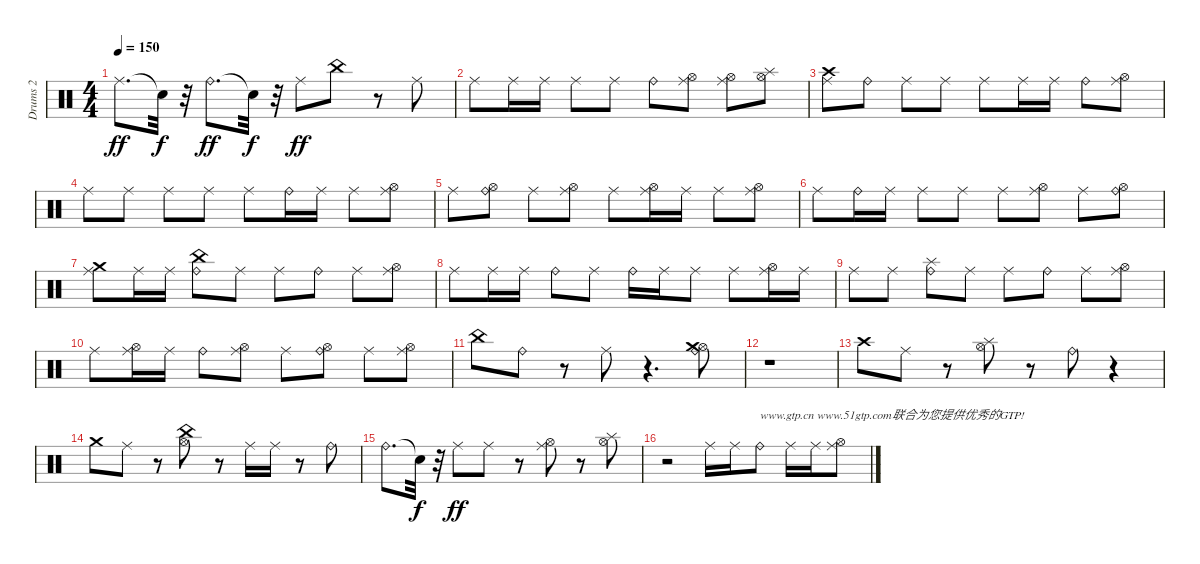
\track ("Drums 2" "Drums 2") {instrument percussion}
\staff {score}
\articulation defaults
\ts (4 4)
\tempo 150
\clef neutral
\ks c "Ride (middle)".8{d dy ff} "Snare (hit)"{t}.32{dy f}
r.32 "Ride (bell)".8{d dy ff} "Snare (hit)"{t}.32{dy f} r.32 "Ride (middle)".8{dy ff} "China (hit)".8 r.8 "Ride (middle)".8 |
"Ride (middle)".8 "Ride (middle)".16 "Ride (middle)".16 "Ride (middle)".8 "Ride (middle)".8 "Ride (bell)".8 ("Hi-Hat (open)" "Ride (middle)").8 ("Hi-Hat (open)" "Ride (middle)").8 ("Hi-Hat (open)" "Splash (hit)").8 |
("Crash high (hit)" "Ride (middle)").8 "Ride (bell)".8 "Ride (middle)".8 "Ride (middle)".8 "Ride (middle)".8 "Ride (middle)".16 "Ride (middle)".16 "Ride (bell)".8 ("Hi-Hat (open)" "Ride (middle)").8 |
"Ride (middle)".8 "Ride (middle)".8 "Ride (middle)".8 "Ride (middle)".8 "Ride (middle)".8 "Ride (bell)".16 "Ride (middle)".16 "Ride (middle)".8 ("Hi-Hat (open)" "Ride (middle)").8 |
"Ride (middle)".8 ("Hi-Hat (open)" "Ride (bell)").8 "Ride (middle)".8 ("Hi-Hat (open)" "Ride (middle)").8 "Ride (middle)".8 ("Hi-Hat (open)" "Ride (middle)").16 "Ride (middle)".16 "Ride (middle)".8 ("Hi-Hat (open)" "Ride (middle)").8 |
"Ride (middle)".8 "Ride (bell)".16 "Ride (middle)".16 "Ride (middle)".8 "Ride (middle)".8 "Ride (middle)".8 ("Hi-Hat (open)" "Ride (middle)").8 "Ride (middle)".8 ("Hi-Hat (open)" "Ride (bell)").8 |
("Ride (middle)" "Crash medium (hit)").8 "Ride (middle)".16 "Ride (middle)".16 ("China (hit)" "Ride (bell)").8 "Ride (middle)".8 "Ride (middle)".8 "Ride (bell)".8 "Ride (middle)".8 ("Hi-Hat (open)" "Ride (middle)").8 |
"Ride (middle)".8 "Ride (middle)".16 "Ride (middle)".16 "Ride (bell)".8 "Ride (middle)".8 "Ride (bell)".16 "Ride (middle)".16 "Ride (middle)".8 "Ride (middle)".8 ("Hi-Hat (open)" "Ride (middle)").16 "Ride (middle)".16 |
"Ride (middle)".8 "Ride (middle)".8 ("Ride (bell)" "Splash (hit)").8 "Ride (middle)".8 "Ride (middle)".8 "Ride (bell)".8 "Ride (middle)".8 ("Hi-Hat (open)" "Ride (middle)").8 |
"Ride (middle)".8 ("Hi-Hat (open)" "Ride (middle)").16 "Ride (middle)".16 "Ride (bell)".8 ("Hi-Hat (open)" "Ride (middle)").8 "Ride (middle)".8 ("Hi-Hat (open)" "Ride (bell)").8 "Ride (middle)".8 ("Hi-Hat (open)" "Ride (middle)").8 |
"China (hit)".8 "Ride (bell)".8 r.8 "Ride (middle)".8 r.4{d} ("Hi-Hat (open)" "Ride (bell)" "Crash medium (hit)").8 |
r.1 |
"Crash high (hit)".8 "Ride (middle)".8 r.8 ("Hi-Hat (open)" "Splash (hit)").8 r.8 "Ride (bell)".8 r.4 |
"Crash medium (hit)".8 "Ride (middle)".8 r.8 ("Hi-Hat (open)" "China (hit)").8 r.8 "Ride (middle)".16 "Ride (middle)".16 r.8 "Ride (bell)".8 |
"Ride (bell)".8{d} "Snare (hit)"{t}.32{dy f} r.32 "Ride (middle)".8{dy ff} "Ride (middle)".8 r.8 ("Hi-Hat (open)" "Ride (middle)").8 r.8 ("Hi-Hat (open)" "Splash (hit)").8 |
r.2 "Ride (middle)".16 "Ride (middle)".16 "Ride (bell)".8{txt "www.gtp.cn www.51gtp.com联合为您提供优秀的GTP!"} "Ride (middle)".16 "Ride (middle)".16 ("Hi-Hat (open)" "Ride (middle)").8
